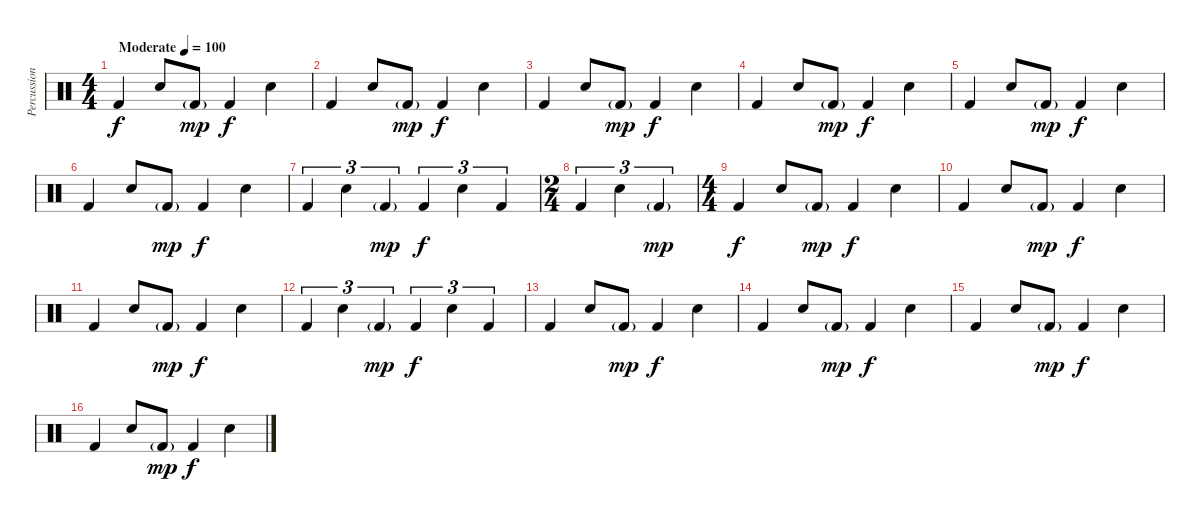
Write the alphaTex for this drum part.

\track ("Percussion" "Percussion") {instrument percussion}
\staff {score}
\articulation defaults
\ts (4 4)
\tempo (100 "Moderate")
\clef neutral
\ks c "Kick (hit) 2".4{dy f} "Snare (hit) 2".8 "Kick (hit) 2"{g}.8{dy mp} "Kick (hit) 2".4{dy f} "Snare (hit) 2".4
|
"Kick (hit) 2".4 "Snare (hit) 2".8 "Kick (hit) 2"{g}.8{dy mp} "Kick (hit) 2".4{dy f} "Snare (hit) 2".4 |
"Kick (hit) 2".4 "Snare (hit) 2".8 "Kick (hit) 2"{g}.8{dy mp} "Kick (hit) 2".4{dy f} "Snare (hit) 2".4 |
"Kick (hit) 2".4 "Snare (hit) 2".8 "Kick (hit) 2"{g}.8{dy mp} "Kick (hit) 2".4{dy f} "Snare (hit) 2".4 |
"Kick (hit) 2".4 "Snare (hit) 2".8 "Kick (hit) 2"{g}.8{dy mp} "Kick (hit) 2".4{dy f} "Snare (hit) 2".4 |
"Kick (hit) 2".4 "Snare (hit) 2".8 "Kick (hit) 2"{g}.8{dy mp} "Kick (hit) 2".4{dy f} "Snare (hit) 2".4 |
"Kick (hit) 2".4{tu (3 2)} "Snare (hit) 2".4{tu (3 2)} "Kick (hit) 2"{g}.4{tu (3 2) dy mp} "Kick (hit) 2".4{tu (3 2) dy f} "Snare (hit) 2".4{tu (3 2)} "Kick (hit) 2".4{tu (3 2)} |
\ts (2 4)
"Kick (hit) 2".4{tu (3 2)} "Snare (hit) 2".4{tu (3 2)} "Kick (hit) 2"{g}.4{tu (3 2) dy mp} |
\ts (4 4)
"Kick (hit) 2".4{dy f} "Snare (hit) 2".8 "Kick (hit) 2"{g}.8{dy mp} "Kick (hit) 2".4{dy f} "Snare (hit) 2".4 |
"Kick (hit) 2".4 "Snare (hit) 2".8 "Kick (hit) 2"{g}.8{dy mp} "Kick (hit) 2".4{dy f} "Snare (hit) 2".4 |
"Kick (hit) 2".4 "Snare (hit) 2".8 "Kick (hit) 2"{g}.8{dy mp} "Kick (hit) 2".4{dy f} "Snare (hit) 2".4 |
"Kick (hit) 2".4{tu (3 2)} "Snare (hit) 2".4{tu (3 2)} "Kick (hit) 2"{g}.4{tu (3 2) dy mp} "Kick (hit) 2".4{tu (3 2) dy f} "Snare (hit) 2".4{tu (3 2)} "Kick (hit) 2".4{tu (3 2)} |
"Kick (hit) 2".4 "Snare (hit) 2".8 "Kick (hit) 2"{g}.8{dy mp} "Kick (hit) 2".4{dy f} "Snare (hit) 2".4 |
"Kick (hit) 2".4 "Snare (hit) 2".8 "Kick (hit) 2"{g}.8{dy mp} "Kick (hit) 2".4{dy f} "Snare (hit) 2".4 |
"Kick (hit) 2".4 "Snare (hit) 2".8 "Kick (hit) 2"{g}.8{dy mp} "Kick (hit) 2".4{dy f} "Snare (hit) 2".4 |
"Kick (hit) 2".4 "Snare (hit) 2".8 "Kick (hit) 2"{g}.8{dy mp} "Kick (hit) 2".4{dy f} "Snare (hit) 2".4
